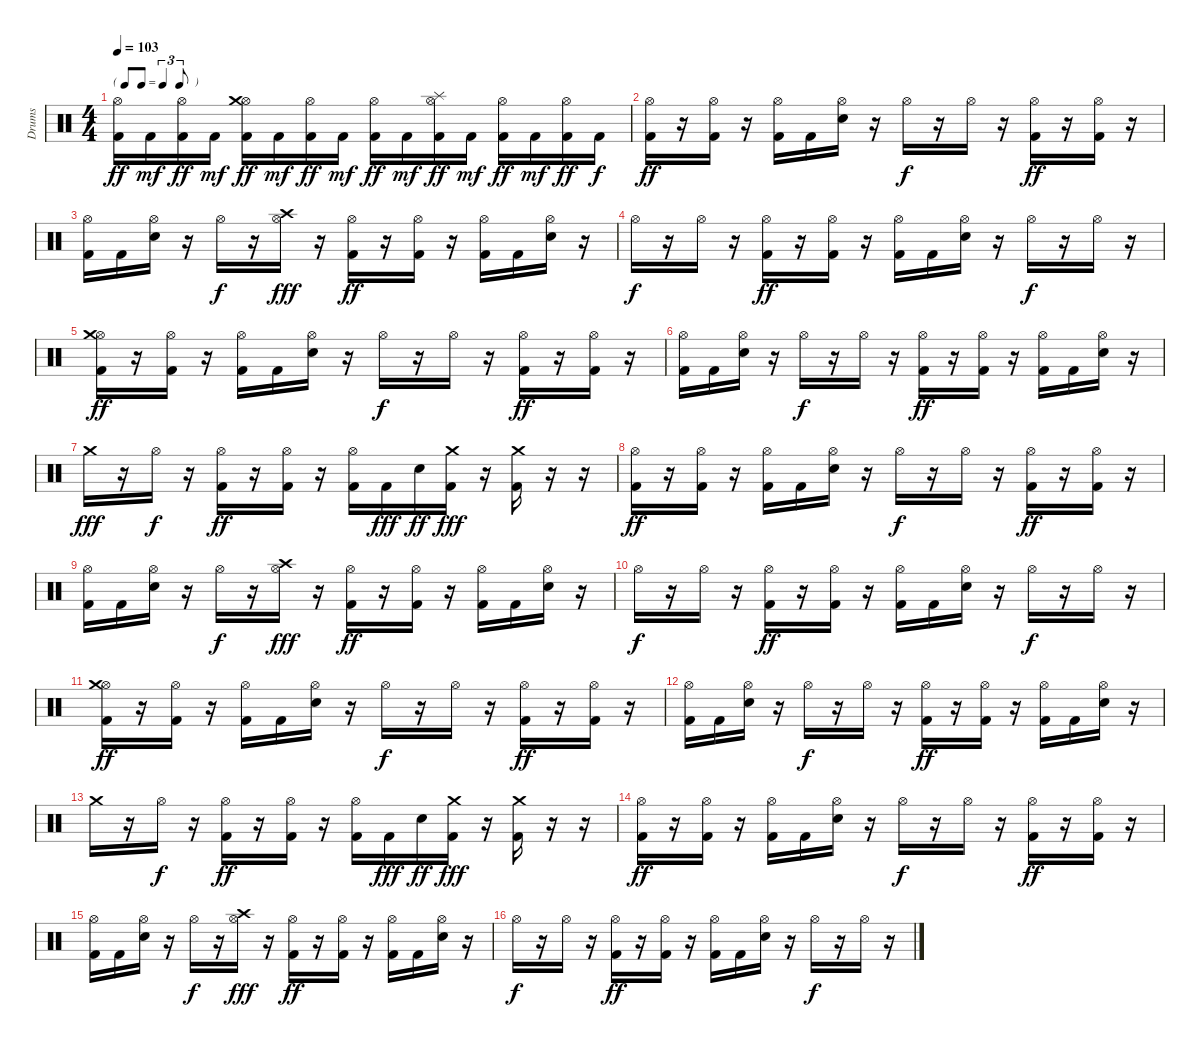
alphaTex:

\track ("Drums" "Drums") {instrument percussion}
\staff {score}
\articulation defaults
\ts (4 4)
\tf triplet8th
\tempo 103
\clef neutral
\ks c
("Hi-Hat (open)" "Kick (hit) 2").16{dy ff} "Kick (hit) 2".16{dy mf} ("Hi-Hat (open)" "Kick (hit) 2").16{dy ff} "Kick (hit) 2".16{dy mf} ("Hi-Hat (open)" "Crash medium (hit)" "Kick (hit) 2").16{dy ff} "Kick (hit) 2".16{dy mf} ("Hi-Hat (open)" "Kick (hit) 2").16{dy ff} "Kick (hit) 2".16{dy mf} ("Hi-Hat (open)" "Kick (hit) 2").16{dy ff} "Kick (hit) 2".16{dy mf} ("Hi-Hat (open)" "Splash (hit)" "Kick (hit) 2").16{dy ff} "Kick (hit) 2".16{dy mf} ("Hi-Hat (open)" "Kick (hit) 2").16{dy ff} "Kick (hit) 2".16{dy mf} ("Hi-Hat (open)" "Kick (hit) 2").16{dy ff} "Kick (hit) 2".16{dy f} |
("Hi-Hat (open)" "Kick (hit) 2").16{dy ff} r.16 ("Hi-Hat (open)" "Kick (hit) 2").16 r.16 ("Hi-Hat (open)" "Kick (hit) 2").16 "Kick (hit) 2".16 ("Hi-Hat (open)" "Electric Snare (hit)").16 r.16 "Hi-Hat (open)".16{dy f} r.16 "Hi-Hat (open)".16 r.16 ("Hi-Hat (open)" "Kick (hit) 2").16{dy ff} r.16 ("Hi-Hat (open)" "Kick (hit) 2").16 r.16 |
("Hi-Hat (open)" "Kick (hit) 2").16 "Kick (hit) 2".16 ("Hi-Hat (open)" "Electric Snare (hit)").16 r.16 "Hi-Hat (open)".16{dy f} r.16 ("Hi-Hat (open)" "Crash high (hit)").16{dy fff} r.16 ("Hi-Hat (open)" "Kick (hit) 2").16{dy ff} r.16 ("Hi-Hat (open)" "Kick (hit) 2").16 r.16 ("Hi-Hat (open)" "Kick (hit) 2").16 "Kick (hit) 2".16 ("Hi-Hat (open)" "Electric Snare (hit)").16 r.16 |
"Hi-Hat (open)".16{dy f} r.16 "Hi-Hat (open)".16 r.16 ("Hi-Hat (open)" "Kick (hit) 2").16{dy ff} r.16 ("Hi-Hat (open)" "Kick (hit) 2").16 r.16 ("Hi-Hat (open)" "Kick (hit) 2").16 "Kick (hit) 2".16 ("Hi-Hat (open)" "Electric Snare (hit)").16 r.16 "Hi-Hat (open)".16{dy f} r.16 "Hi-Hat (open)".16 r.16 |
("Hi-Hat (open)" "Crash medium (hit)" "Kick (hit) 2").16{dy ff} r.16 ("Hi-Hat (open)" "Kick (hit) 2").16 r.16 ("Hi-Hat (open)" "Kick (hit) 2").16 "Kick (hit) 2".16 ("Hi-Hat (open)" "Electric Snare (hit)").16 r.16 "Hi-Hat (open)".16{dy f} r.16 "Hi-Hat (open)".16 r.16 ("Hi-Hat (open)" "Kick (hit) 2").16{dy ff} r.16 ("Hi-Hat (open)" "Kick (hit) 2").16 r.16 |
("Hi-Hat (open)" "Kick (hit) 2").16 "Kick (hit) 2".16 ("Hi-Hat (open)" "Electric Snare (hit)").16 r.16 "Hi-Hat (open)".16{dy f} r.16 "Hi-Hat (open)".16 r.16 ("Hi-Hat (open)" "Kick (hit) 2").16{dy ff} r.16 ("Hi-Hat (open)" "Kick (hit) 2").16 r.16 ("Hi-Hat (open)" "Kick (hit) 2").16 "Kick (hit) 2".16 ("Hi-Hat (open)" "Electric Snare (hit)").16 r.16 |
"Crash medium (hit)".16{dy fff} r.16 "Hi-Hat (open)".16{dy f} r.16 ("Hi-Hat (open)" "Kick (hit) 2").16{dy ff} r.16 ("Hi-Hat (open)" "Kick (hit) 2").16 r.16 ("Hi-Hat (open)" "Kick (hit) 2").16 "Kick (hit) 2".16{dy fff} "Electric Snare (hit)".16{dy ff} ("Crash medium (hit)" "Kick (hit) 2").16{dy fff} r.16 ("Crash medium (hit)" "Kick (hit) 2").16 r.16 r.16 |
("Hi-Hat (open)" "Kick (hit) 2").16{dy ff} r.16 ("Hi-Hat (open)" "Kick (hit) 2").16 r.16 ("Hi-Hat (open)" "Kick (hit) 2").16 "Kick (hit) 2".16 ("Hi-Hat (open)" "Electric Snare (hit)").16 r.16 "Hi-Hat (open)".16{dy f} r.16 "Hi-Hat (open)".16 r.16 ("Hi-Hat (open)" "Kick (hit) 2").16{dy ff} r.16 ("Hi-Hat (open)" "Kick (hit) 2").16 r.16 |
("Hi-Hat (open)" "Kick (hit) 2").16 "Kick (hit) 2".16 ("Hi-Hat (open)" "Electric Snare (hit)").16 r.16 "Hi-Hat (open)".16{dy f} r.16 ("Hi-Hat (open)" "Crash high (hit)").16{dy fff} r.16 ("Hi-Hat (open)" "Kick (hit) 2").16{dy ff} r.16 ("Hi-Hat (open)" "Kick (hit) 2").16 r.16 ("Hi-Hat (open)" "Kick (hit) 2").16 "Kick (hit) 2".16 ("Hi-Hat (open)" "Electric Snare (hit)").16 r.16 |
"Hi-Hat (open)".16{dy f} r.16 "Hi-Hat (open)".16 r.16 ("Hi-Hat (open)" "Kick (hit) 2").16{dy ff} r.16 ("Hi-Hat (open)" "Kick (hit) 2").16 r.16 ("Hi-Hat (open)" "Kick (hit) 2").16 "Kick (hit) 2".16 ("Hi-Hat (open)" "Electric Snare (hit)").16 r.16 "Hi-Hat (open)".16{dy f} r.16 "Hi-Hat (open)".16 r.16 |
("Hi-Hat (open)" "Crash medium (hit)" "Kick (hit) 2").16{dy ff} r.16 ("Hi-Hat (open)" "Kick (hit) 2").16 r.16 ("Hi-Hat (open)" "Kick (hit) 2").16 "Kick (hit) 2".16 ("Hi-Hat (open)" "Electric Snare (hit)").16 r.16 "Hi-Hat (open)".16{dy f} r.16 "Hi-Hat (open)".16 r.16 ("Hi-Hat (open)" "Kick (hit) 2").16{dy ff} r.16 ("Hi-Hat (open)" "Kick (hit) 2").16 r.16 |
("Hi-Hat (open)" "Kick (hit) 2").16 "Kick (hit) 2".16 ("Hi-Hat (open)" "Electric Snare (hit)").16 r.16 "Hi-Hat (open)".16{dy f} r.16 "Hi-Hat (open)".16 r.16 ("Hi-Hat (open)" "Kick (hit) 2").16{dy ff} r.16 ("Hi-Hat (open)" "Kick (hit) 2").16 r.16 ("Hi-Hat (open)" "Kick (hit) 2").16 "Kick (hit) 2".16 ("Hi-Hat (open)" "Electric Snare (hit)").16 r.16 |
"Crash medium (hit)".16 r.16 "Hi-Hat (open)".16{dy f} r.16 ("Hi-Hat (open)" "Kick (hit) 2").16{dy ff} r.16 ("Hi-Hat (open)" "Kick (hit) 2").16 r.16 ("Hi-Hat (open)" "Kick (hit) 2").16 "Kick (hit) 2".16{dy fff} "Electric Snare (hit)".16{dy ff} ("Crash medium (hit)" "Kick (hit) 2").16{dy fff} r.16 ("Crash medium (hit)" "Kick (hit) 2").16 r.16 r.16 |
("Hi-Hat (open)" "Kick (hit) 2").16{dy ff} r.16 ("Hi-Hat (open)" "Kick (hit) 2").16 r.16 ("Hi-Hat (open)" "Kick (hit) 2").16 "Kick (hit) 2".16 ("Hi-Hat (open)" "Electric Snare (hit)").16 r.16 "Hi-Hat (open)".16{dy f} r.16 "Hi-Hat (open)".16 r.16 ("Hi-Hat (open)" "Kick (hit) 2").16{dy ff} r.16 ("Hi-Hat (open)" "Kick (hit) 2").16 r.16 |
("Hi-Hat (open)" "Kick (hit) 2").16 "Kick (hit) 2".16 ("Hi-Hat (open)" "Electric Snare (hit)").16 r.16 "Hi-Hat (open)".16{dy f} r.16 ("Hi-Hat (open)" "Crash high (hit)").16{dy fff} r.16 ("Hi-Hat (open)" "Kick (hit) 2").16{dy ff} r.16 ("Hi-Hat (open)" "Kick (hit) 2").16 r.16 ("Hi-Hat (open)" "Kick (hit) 2").16 "Kick (hit) 2".16 ("Hi-Hat (open)" "Electric Snare (hit)").16 r.16 |
"Hi-Hat (open)".16{dy f} r.16 "Hi-Hat (open)".16 r.16 ("Hi-Hat (open)" "Kick (hit) 2").16{dy ff} r.16 ("Hi-Hat (open)" "Kick (hit) 2").16 r.16 ("Hi-Hat (open)" "Kick (hit) 2").16 "Kick (hit) 2".16 ("Hi-Hat (open)" "Electric Snare (hit)").16 r.16 "Hi-Hat (open)".16{dy f} r.16 "Hi-Hat (open)".16 r.16
